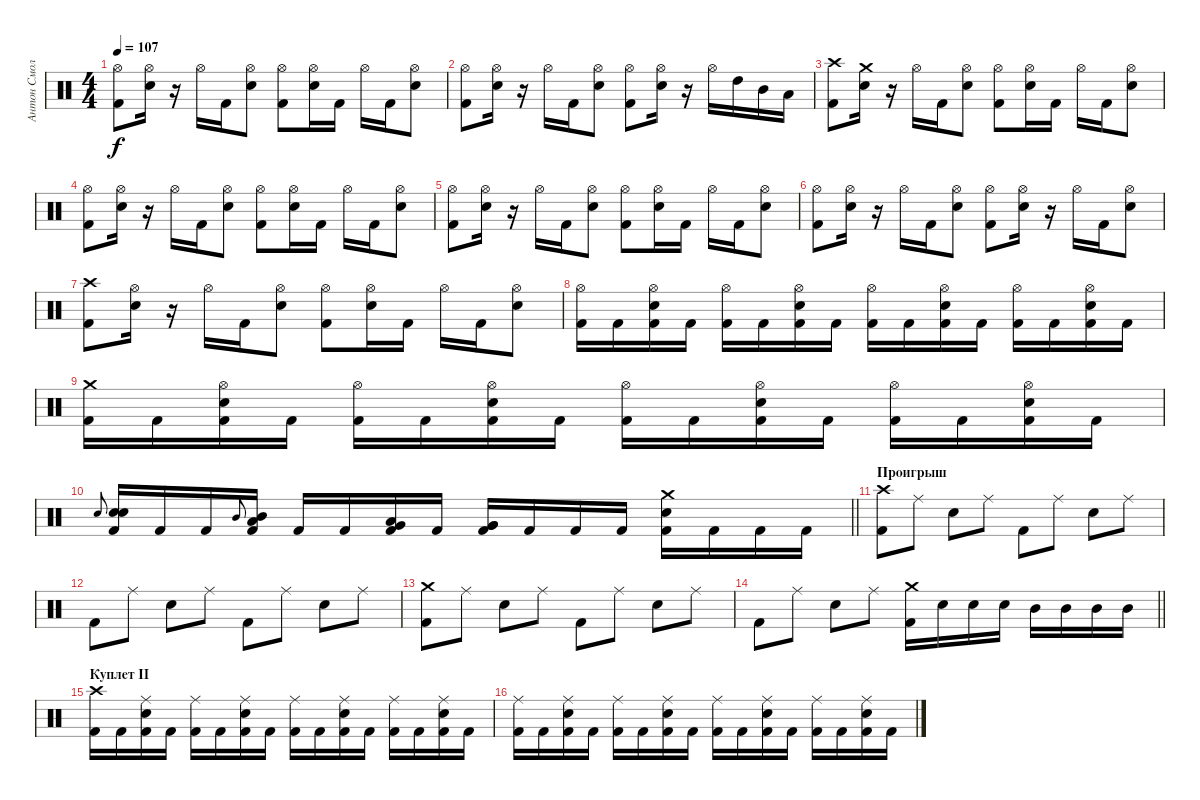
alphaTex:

\track ("Антон Смольянин" "Антон Смол") {instrument percussion}
\staff {score}
\articulation defaults
\ts (4 4)
\tempo 107
\clef neutral
\ks c
("Hi-Hat (open)" "Kick (hit) 2").8{dy f} ("Hi-Hat (open)" "Electric Snare (hit)").16 r.16 "Hi-Hat (open)".16 "Kick (hit) 2".16 ("Hi-Hat (open)" "Electric Snare (hit)").8 ("Hi-Hat (open)" "Kick (hit) 2").8 ("Hi-Hat (open)" "Electric Snare (hit)").16 "Kick (hit) 2".16 "Hi-Hat (open)".16 "Kick (hit) 2".16 ("Hi-Hat (open)" "Electric Snare (hit)").8 |
("Hi-Hat (open)" "Kick (hit) 2").8 ("Hi-Hat (open)" "Electric Snare (hit)").16 r.16 "Hi-Hat (open)".16 "Kick (hit) 2".16 ("Hi-Hat (open)" "Electric Snare (hit)").8 ("Hi-Hat (open)" "Kick (hit) 2").8 ("Hi-Hat (open)" "Electric Snare (hit)").16 r.16 "Hi-Hat (open)".16 "High Tom (hit)".16 "Mid Tom (hit)".16 "Low Tom (hit)".16 |
("Crash high (hit)" "Kick (hit) 2").8 ("Crash medium (hit)" "Electric Snare (hit)").16 r.16 "Hi-Hat (open)".16 "Kick (hit) 2".16 ("Hi-Hat (open)" "Electric Snare (hit)").8 ("Hi-Hat (open)" "Kick (hit) 2").8 ("Hi-Hat (open)" "Electric Snare (hit)").16 "Kick (hit) 2".16 "Hi-Hat (open)".16 "Kick (hit) 2".16 ("Hi-Hat (open)" "Electric Snare (hit)").8 |
("Hi-Hat (open)" "Kick (hit) 2").8 ("Hi-Hat (open)" "Electric Snare (hit)").16 r.16 "Hi-Hat (open)".16 "Kick (hit) 2".16 ("Hi-Hat (open)" "Electric Snare (hit)").8 ("Hi-Hat (open)" "Kick (hit) 2").8 ("Hi-Hat (open)" "Electric Snare (hit)").16 "Kick (hit) 2".16 "Hi-Hat (open)".16 "Kick (hit) 2".16 ("Hi-Hat (open)" "Electric Snare (hit)").8 |
("Hi-Hat (open)" "Kick (hit) 2").8 ("Hi-Hat (open)" "Electric Snare (hit)").16 r.16 "Hi-Hat (open)".16 "Kick (hit) 2".16 ("Hi-Hat (open)" "Electric Snare (hit)").8 ("Hi-Hat (open)" "Kick (hit) 2").8 ("Hi-Hat (open)" "Electric Snare (hit)").16 "Kick (hit) 2".16 "Hi-Hat (open)".16 "Kick (hit) 2".16 ("Hi-Hat (open)" "Electric Snare (hit)").8 |
("Hi-Hat (open)" "Kick (hit) 2").8 ("Hi-Hat (open)" "Electric Snare (hit)").16 r.16 "Hi-Hat (open)".16 "Kick (hit) 2".16 ("Hi-Hat (open)" "Electric Snare (hit)").8 ("Hi-Hat (open)" "Kick (hit) 2").8 ("Hi-Hat (open)" "Electric Snare (hit)").16 r.16 "Hi-Hat (open)".16 "Kick (hit) 2".16 ("Hi-Hat (open)" "Electric Snare (hit)").8 |
("Crash high (hit)" "Kick (hit) 2").8 ("Hi-Hat (open)" "Electric Snare (hit)").16 r.16 "Hi-Hat (open)".16 "Kick (hit) 2".16 ("Hi-Hat (open)" "Electric Snare (hit)").8 ("Hi-Hat (open)" "Kick (hit) 2").8 ("Hi-Hat (open)" "Electric Snare (hit)").16 "Kick (hit) 2".16 "Hi-Hat (open)".16 "Kick (hit) 2".16 ("Hi-Hat (open)" "Electric Snare (hit)").8 |
("Hi-Hat (open)" "Kick (hit) 2").16 "Kick (hit) 2".16 ("Hi-Hat (open)" "Electric Snare (hit)" "Kick (hit) 2").16 "Kick (hit) 2".16 ("Hi-Hat (open)" "Kick (hit) 2").16 "Kick (hit) 2".16 ("Hi-Hat (open)" "Electric Snare (hit)" "Kick (hit) 2").16 "Kick (hit) 2".16 ("Hi-Hat (open)" "Kick (hit) 2").16 "Kick (hit) 2".16 ("Hi-Hat (open)" "Electric Snare (hit)" "Kick (hit) 2").16 "Kick (hit) 2".16 ("Hi-Hat (open)" "Kick (hit) 2").16 "Kick (hit) 2".16 ("Hi-Hat (open)" "Electric Snare (hit)" "Kick (hit) 2").16 "Kick (hit) 2".16 |
("Crash medium (hit)" "Kick (hit) 2").16 "Kick (hit) 2".16 ("Hi-Hat (open)" "Electric Snare (hit)" "Kick (hit) 2").16 "Kick (hit) 2".16 ("Hi-Hat (open)" "Kick (hit) 2").16 "Kick (hit) 2".16 ("Hi-Hat (open)" "Electric Snare (hit)" "Kick (hit) 2").16 "Kick (hit) 2".16 ("Hi-Hat (open)" "Kick (hit) 2").16 "Kick (hit) 2".16 ("Hi-Hat (open)" "Electric Snare (hit)" "Kick (hit) 2").16 "Kick (hit) 2".16 ("Hi-Hat (open)" "Kick (hit) 2").16 "Kick (hit) 2".16 ("Hi-Hat (open)" "Electric Snare (hit)" "Kick (hit) 2").16 "Kick (hit) 2".16 |
\barLineRight lightlight "Electric Snare (hit)".8{gr onbeat}
("Electric Snare (hit)" "Electric Snare (hit)" "Kick (hit) 2").16 "Kick (hit) 2".16 "Kick (hit) 2".16 "Mid Tom (hit)".8{gr onbeat} ("Mid Tom (hit)" "Low Tom (hit)" "Kick (hit) 2").16 "Kick (hit) 2".16 "Kick (hit) 2".16 ("Low Tom (hit)" "Very Low Tom (hit)" "Kick (hit) 2").16 "Kick (hit) 2".16 ("Very Low Tom (hit)" "Very Low Tom (hit)" "Kick (hit) 2").16 "Kick (hit) 2".16 "Kick (hit) 2".16 "Kick (hit) 2".16 ("Crash medium (hit)" "Electric Snare (hit)" "Kick (hit) 2").16 "Kick (hit) 2".16 "Kick (hit) 2".16 "Kick (hit) 2".16 |
\section ("" "Проигрыш")
("Crash high (hit)" "Kick (hit) 2").8 "Ride (middle)".8 "Electric Snare (hit)".8 "Ride (middle)".8 "Kick (hit) 2".8 "Ride (middle)".8 "Electric Snare (hit)".8 "Ride (middle)".8 |
"Kick (hit) 2".8 "Ride (middle)".8 "Electric Snare (hit)".8 "Ride (middle)".8 "Kick (hit) 2".8 "Ride (middle)".8 "Electric Snare (hit)".8 "Ride (middle)".8 |
("Crash medium (hit)" "Kick (hit) 2").8 "Ride (middle)".8 "Electric Snare (hit)".8 "Ride (middle)".8 "Kick (hit) 2".8 "Ride (middle)".8 "Electric Snare (hit)".8 "Ride (middle)".8 |
\barLineRight lightlight "Kick (hit) 2".8 "Ride (middle)".8 "Electric Snare (hit)".8 "Ride (middle)".8
("Crash medium (hit)" "Kick (hit) 2").16 "Electric Snare (hit)".16 "Electric Snare (hit)".16 "Electric Snare (hit)".16 "Mid Tom (hit)".16 "Mid Tom (hit)".16 "Mid Tom (hit)".16 "Mid Tom (hit)".16 |
\section ("" "Куплет II")
("Crash high (hit)" "Kick (hit) 2").16 "Kick (hit) 2".16 ("Ride (middle)" "Electric Snare (hit)" "Kick (hit) 2").16 "Kick (hit) 2".16 ("Ride (middle)" "Kick (hit) 2").16 "Kick (hit) 2".16 ("Ride (middle)" "Electric Snare (hit)" "Kick (hit) 2").16 "Kick (hit) 2".16 ("Ride (middle)" "Kick (hit) 2").16 "Kick (hit) 2".16 ("Ride (middle)" "Electric Snare (hit)" "Kick (hit) 2").16 "Kick (hit) 2".16 ("Ride (middle)" "Kick (hit) 2").16 "Kick (hit) 2".16 ("Ride (middle)" "Electric Snare (hit)" "Kick (hit) 2").16 "Kick (hit) 2".16 |
("Ride (middle)" "Kick (hit) 2").16 "Kick (hit) 2".16 ("Ride (middle)" "Electric Snare (hit)" "Kick (hit) 2").16 "Kick (hit) 2".16 ("Ride (middle)" "Kick (hit) 2").16 "Kick (hit) 2".16 ("Ride (middle)" "Electric Snare (hit)" "Kick (hit) 2").16 "Kick (hit) 2".16 ("Ride (middle)" "Kick (hit) 2").16 "Kick (hit) 2".16 ("Ride (middle)" "Electric Snare (hit)" "Kick (hit) 2").16 "Kick (hit) 2".16 ("Ride (middle)" "Kick (hit) 2").16 "Kick (hit) 2".16 ("Ride (middle)" "Electric Snare (hit)" "Kick (hit) 2").16 "Kick (hit) 2".16
